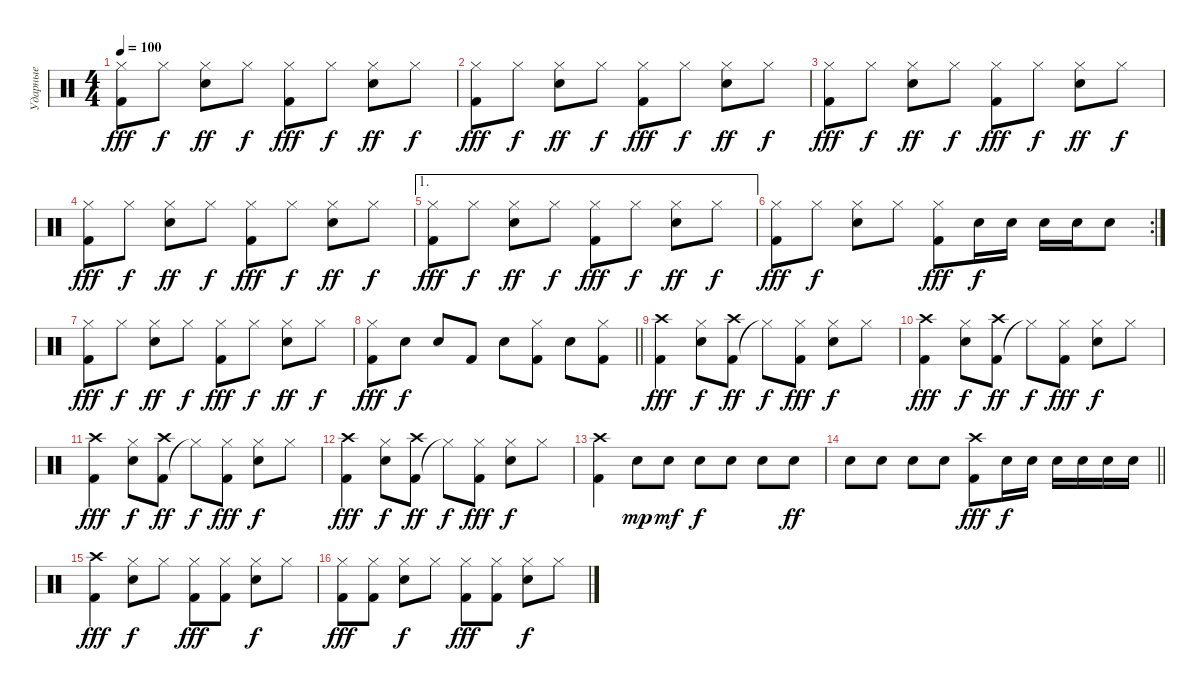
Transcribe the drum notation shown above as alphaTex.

\track ("Ударные" "Ударные") {instrument percussion}
\staff
\articulation defaults
\ts (4 4)
\tempo 100
\clef neutral
\ks c
("Kick (hit) 2" "Hi-Hat (closed)").8{dy fff} "Hi-Hat (closed)".8{dy f} ("Snare (hit) 2" "Hi-Hat (closed)").8{dy ff} "Hi-Hat (closed)".8{dy f} ("Kick (hit) 2" "Hi-Hat (closed)").8{dy fff} "Hi-Hat (closed)".8{dy f} ("Snare (hit) 2" "Hi-Hat (closed)").8{dy ff} "Hi-Hat (closed)".8{dy f} |
("Kick (hit) 2" "Hi-Hat (closed)").8{dy fff} "Hi-Hat (closed)".8{dy f} ("Snare (hit) 2" "Hi-Hat (closed)").8{dy ff} "Hi-Hat (closed)".8{dy f} ("Kick (hit) 2" "Hi-Hat (closed)").8{dy fff} "Hi-Hat (closed)".8{dy f} ("Snare (hit) 2" "Hi-Hat (closed)").8{dy ff} "Hi-Hat (closed)".8{dy f} |
("Kick (hit) 2" "Hi-Hat (closed)").8{dy fff} "Hi-Hat (closed)".8{dy f} ("Snare (hit) 2" "Hi-Hat (closed)").8{dy ff} "Hi-Hat (closed)".8{dy f} ("Kick (hit) 2" "Hi-Hat (closed)").8{dy fff} "Hi-Hat (closed)".8{dy f} ("Snare (hit) 2" "Hi-Hat (closed)").8{dy ff} "Hi-Hat (closed)".8{dy f} |
("Kick (hit) 2" "Hi-Hat (closed)").8{dy fff} "Hi-Hat (closed)".8{dy f} ("Snare (hit) 2" "Hi-Hat (closed)").8{dy ff} "Hi-Hat (closed)".8{dy f} ("Kick (hit) 2" "Hi-Hat (closed)").8{dy fff} "Hi-Hat (closed)".8{dy f} ("Snare (hit) 2" "Hi-Hat (closed)").8{dy ff} "Hi-Hat (closed)".8{dy f} |
\ae 1
("Kick (hit) 2" "Hi-Hat (closed)").8{dy fff} "Hi-Hat (closed)".8{dy f} ("Snare (hit) 2" "Hi-Hat (closed)").8{dy ff} "Hi-Hat (closed)".8{dy f} ("Kick (hit) 2" "Hi-Hat (closed)").8{dy fff} "Hi-Hat (closed)".8{dy f} ("Snare (hit) 2" "Hi-Hat (closed)").8{dy ff} "Hi-Hat (closed)".8{dy f} |
\rc 2
("Kick (hit) 2" "Hi-Hat (closed)").8{dy fff} "Hi-Hat (closed)".8{dy f} ("Snare (hit) 2" "Hi-Hat (closed)").8 "Hi-Hat (closed)".8 ("Kick (hit) 2" "Hi-Hat (closed)").8{dy fff} "Snare (hit) 2".16{dy f} "Snare (hit) 2".16 "Snare (hit) 2".16 "Snare (hit) 2".16 "Snare (hit) 2".8 |
("Kick (hit) 2" "Hi-Hat (closed)").8{dy fff} "Hi-Hat (closed)".8{dy f} ("Snare (hit) 2" "Hi-Hat (closed)").8{dy ff} "Hi-Hat (closed)".8{dy f} ("Kick (hit) 2" "Hi-Hat (closed)").8{dy fff} "Hi-Hat (closed)".8{dy f} ("Snare (hit) 2" "Hi-Hat (closed)").8{dy ff} "Hi-Hat (closed)".8{dy f} |
\barLineRight lightlight
("Kick (hit) 2" "Hi-Hat (closed)").8{dy fff} "Snare (hit) 2".8{dy f} "Snare (hit) 2".8 "Kick (hit) 2".8 "Snare (hit) 2".8 ("Kick (hit) 2" "Hi-Hat (closed)").8 "Snare (hit) 2".8 ("Kick (hit) 2" "Hi-Hat (closed)").8 |
("Kick (hit) 2" "Crash high (hit)").4{dy fff} ("Snare (hit) 2" "Hi-Hat (closed)").8{dy f} ("Kick (hit) 2" "Crash high (hit)").8{dy ff} "Hi-Hat (closed)"{t}.8{dy f} ("Kick (hit) 2" "Hi-Hat (closed)").8{dy fff} ("Snare (hit) 2" "Hi-Hat (closed)").8{dy f} "Hi-Hat (closed)".8 |
("Kick (hit) 2" "Crash high (hit)").4{dy fff} ("Snare (hit) 2" "Hi-Hat (closed)").8{dy f} ("Kick (hit) 2" "Crash high (hit)").8{dy ff} "Hi-Hat (closed)"{t}.8{dy f} ("Kick (hit) 2" "Hi-Hat (closed)").8{dy fff} ("Snare (hit) 2" "Hi-Hat (closed)").8{dy f} "Hi-Hat (closed)".8 |
("Kick (hit) 2" "Crash high (hit)").4{dy fff} ("Snare (hit) 2" "Hi-Hat (closed)").8{dy f} ("Kick (hit) 2" "Crash high (hit)").8{dy ff} "Hi-Hat (closed)"{t}.8{dy f} ("Kick (hit) 2" "Hi-Hat (closed)").8{dy fff} ("Snare (hit) 2" "Hi-Hat (closed)").8{dy f} "Hi-Hat (closed)".8 |
("Kick (hit) 2" "Crash high (hit)").4{dy fff} ("Snare (hit) 2" "Hi-Hat (closed)").8{dy f} ("Kick (hit) 2" "Crash high (hit)").8{dy ff} "Hi-Hat (closed)"{t}.8{dy f} ("Kick (hit) 2" "Hi-Hat (closed)").8{dy fff} ("Snare (hit) 2" "Hi-Hat (closed)").8{dy f} "Hi-Hat (closed)".8 |
("Kick (hit) 2" "Crash high (hit)").4 "Snare (hit) 2".8{dy mp} "Snare (hit) 2".8{dy mf} "Snare (hit) 2".8{dy f} "Snare (hit) 2".8 "Snare (hit) 2".8 "Snare (hit) 2".8{dy ff} |
\barLineRight lightlight "Snare (hit) 2".8 "Snare (hit) 2".8 "Snare (hit) 2".8 "Snare (hit) 2".8
("Kick (hit) 2" "Crash high (hit)").8{dy fff} "Snare (hit) 2".16{dy f} "Snare (hit) 2".16 "Snare (hit) 2".16 "Snare (hit) 2".16 "Snare (hit) 2".16 "Snare (hit) 2".16 |
("Kick (hit) 2" "Crash high (hit)").4{dy fff} ("Snare (hit) 2" "Hi-Hat (closed)").8{dy f} "Hi-Hat (closed)".8 ("Kick (hit) 2" "Hi-Hat (closed)").8{dy fff} ("Kick (hit) 2" "Hi-Hat (closed)").8 ("Snare (hit) 2" "Hi-Hat (closed)").8{dy f} "Hi-Hat (closed)".8 |
("Kick (hit) 2" "Hi-Hat (closed)").8{dy fff} ("Kick (hit) 2" "Hi-Hat (closed)").8 ("Snare (hit) 2" "Hi-Hat (closed)").8{dy f} "Hi-Hat (closed)".8 ("Kick (hit) 2" "Hi-Hat (closed)").8{dy fff} ("Kick (hit) 2" "Hi-Hat (closed)").8 ("Snare (hit) 2" "Hi-Hat (closed)").8{dy f} "Hi-Hat (closed)".8
